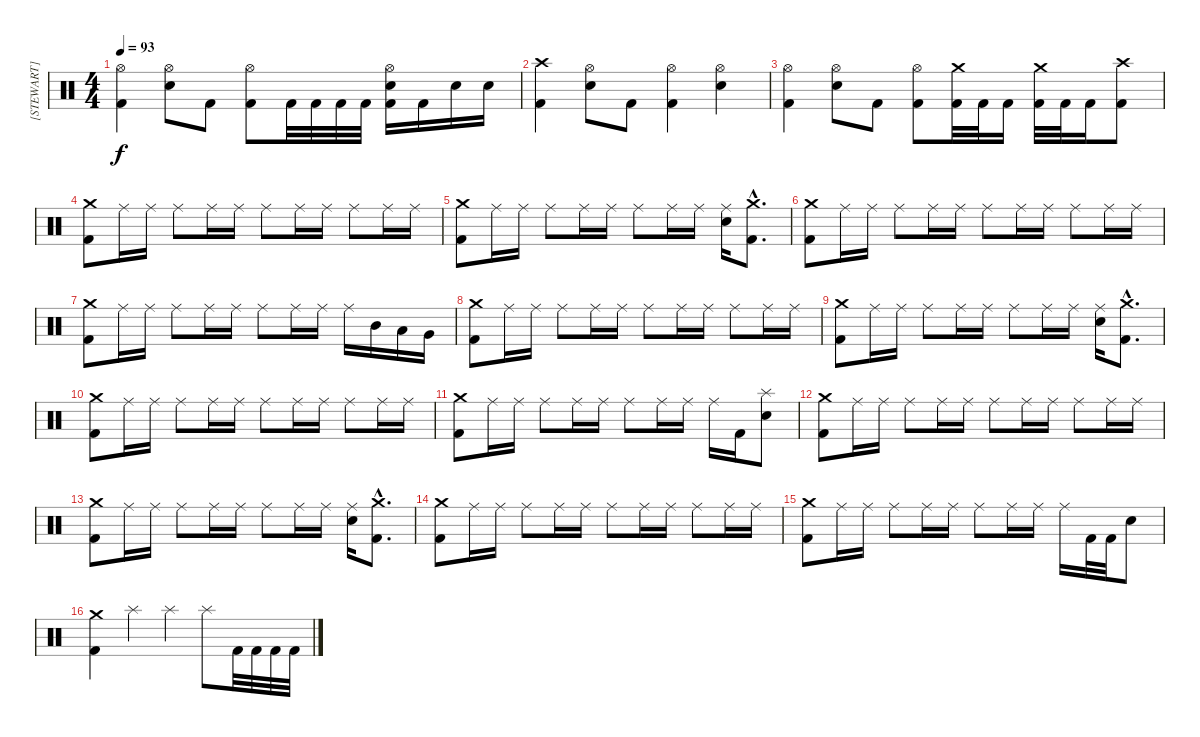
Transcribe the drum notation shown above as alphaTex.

\track ("[STEWART]" "[STEWART]") {instrument percussion}
\staff {score}
\articulation defaults
\ts (4 4)
\tempo 93
\clef neutral
\ks c
("Hi-Hat (open)" "Kick (hit) 2").4{dy f} ("Hi-Hat (open)" "Electric Snare (hit)").8 "Kick (hit) 2".8 ("Hi-Hat (open)" "Kick (hit) 2").8 "Kick (hit) 2".32 "Kick (hit) 2".32 "Kick (hit) 2".32 "Kick (hit) 2".32 ("Hi-Hat (open)" "Electric Snare (hit)" "Kick (hit) 2").16 "Kick (hit) 2".16 "Electric Snare (hit)".16 "Electric Snare (hit)".16 |
("Crash high (hit)" "Kick (hit) 2").4 ("Hi-Hat (open)" "Electric Snare (hit)").8 "Kick (hit) 2".8 ("Hi-Hat (open)" "Kick (hit) 2").4 ("Hi-Hat (open)" "Electric Snare (hit)").4 |
("Hi-Hat (open)" "Kick (hit) 2").4 ("Hi-Hat (open)" "Electric Snare (hit)").8 "Kick (hit) 2".8 ("Hi-Hat (open)" "Kick (hit) 2").8 ("Crash medium (hit)" "Kick (hit) 2").32 "Kick (hit) 2".32 "Kick (hit) 2".16 ("Crash medium (hit)" "Kick (hit) 2").32 "Kick (hit) 2".32 "Kick (hit) 2".16 ("Crash high (hit)" "Kick (hit) 2").8 |
("Crash medium (hit)" "Kick (hit) 2").8 "Ride (middle)".16 "Ride (middle)".16 "Ride (middle)".8 "Ride (middle)".16 "Ride (middle)".16 "Ride (middle)".8 "Ride (middle)".16 "Ride (middle)".16 "Ride (middle)".8 "Ride (middle)".16 "Ride (middle)".16 |
("Crash medium (hit)" "Kick (hit) 2").8 "Ride (middle)".16 "Ride (middle)".16 "Ride (middle)".8 "Ride (middle)".16 "Ride (middle)".16 "Ride (middle)".8 "Ride (middle)".16 "Ride (middle)".16 ("Ride (middle)" "Electric Snare (hit)").16 ("Crash medium (hit)"{hac} "Kick (hit) 2"{hac}).8{d} |
("Crash medium (hit)" "Kick (hit) 2").8 "Ride (middle)".16 "Ride (middle)".16 "Ride (middle)".8 "Ride (middle)".16 "Ride (middle)".16 "Ride (middle)".8 "Ride (middle)".16 "Ride (middle)".16 "Ride (middle)".8 "Ride (middle)".16 "Ride (middle)".16 |
("Crash medium (hit)" "Kick (hit) 2").8 "Ride (middle)".16 "Ride (middle)".16 "Ride (middle)".8 "Ride (middle)".16 "Ride (middle)".16 "Ride (middle)".8 "Ride (middle)".16 "Ride (middle)".16 "Ride (middle)".16 "Mid Tom (hit)".16 "Low Tom (hit)".16 "Very Low Tom (hit)".16 |
("Crash medium (hit)" "Kick (hit) 2").8 "Ride (middle)".16 "Ride (middle)".16 "Ride (middle)".8 "Ride (middle)".16 "Ride (middle)".16 "Ride (middle)".8 "Ride (middle)".16 "Ride (middle)".16 "Ride (middle)".8 "Ride (middle)".16 "Ride (middle)".16 |
("Crash medium (hit)" "Kick (hit) 2").8 "Ride (middle)".16 "Ride (middle)".16 "Ride (middle)".8 "Ride (middle)".16 "Ride (middle)".16 "Ride (middle)".8 "Ride (middle)".16 "Ride (middle)".16 ("Ride (middle)" "Electric Snare (hit)").16 ("Crash medium (hit)"{hac} "Kick (hit) 2"{hac}).8{d} |
("Crash medium (hit)" "Kick (hit) 2").8 "Ride (middle)".16 "Ride (middle)".16 "Ride (middle)".8 "Ride (middle)".16 "Ride (middle)".16 "Ride (middle)".8 "Ride (middle)".16 "Ride (middle)".16 "Ride (middle)".8 "Ride (middle)".16 "Ride (middle)".16 |
("Crash medium (hit)" "Kick (hit) 2").8 "Ride (middle)".16 "Ride (middle)".16 "Ride (middle)".8 "Ride (middle)".16 "Ride (middle)".16 "Ride (middle)".8 "Ride (middle)".16 "Ride (middle)".16 "Ride (middle)".16 "Kick (hit) 2".16 ("Splash (hit)" "Electric Snare (hit)").8 |
("Crash medium (hit)" "Kick (hit) 2").8 "Ride (middle)".16 "Ride (middle)".16 "Ride (middle)".8 "Ride (middle)".16 "Ride (middle)".16 "Ride (middle)".8 "Ride (middle)".16 "Ride (middle)".16 "Ride (middle)".8 "Ride (middle)".16 "Ride (middle)".16 |
("Crash medium (hit)" "Kick (hit) 2").8 "Ride (middle)".16 "Ride (middle)".16 "Ride (middle)".8 "Ride (middle)".16 "Ride (middle)".16 "Ride (middle)".8 "Ride (middle)".16 "Ride (middle)".16 ("Ride (middle)" "Electric Snare (hit)").16 ("Crash medium (hit)"{hac} "Kick (hit) 2"{hac}).8{d} |
("Crash medium (hit)" "Kick (hit) 2").8 "Ride (middle)".16 "Ride (middle)".16 "Ride (middle)".8 "Ride (middle)".16 "Ride (middle)".16 "Ride (middle)".8 "Ride (middle)".16 "Ride (middle)".16 "Ride (middle)".8 "Ride (middle)".16 "Ride (middle)".16 |
("Crash medium (hit)" "Kick (hit) 2").8 "Ride (middle)".16 "Ride (middle)".16 "Ride (middle)".8 "Ride (middle)".16 "Ride (middle)".16 "Ride (middle)".8 "Ride (middle)".16 "Ride (middle)".16 "Ride (middle)".16 "Kick (hit) 2".32 "Kick (hit) 2".32 "Electric Snare (hit)".8 |
("Crash medium (hit)" "Kick (hit) 2").4 "Splash (hit)".4 "Splash (hit)".4 "Splash (hit)".8 "Kick (hit) 2".32 "Kick (hit) 2".32 "Kick (hit) 2".32 "Kick (hit) 2".32
